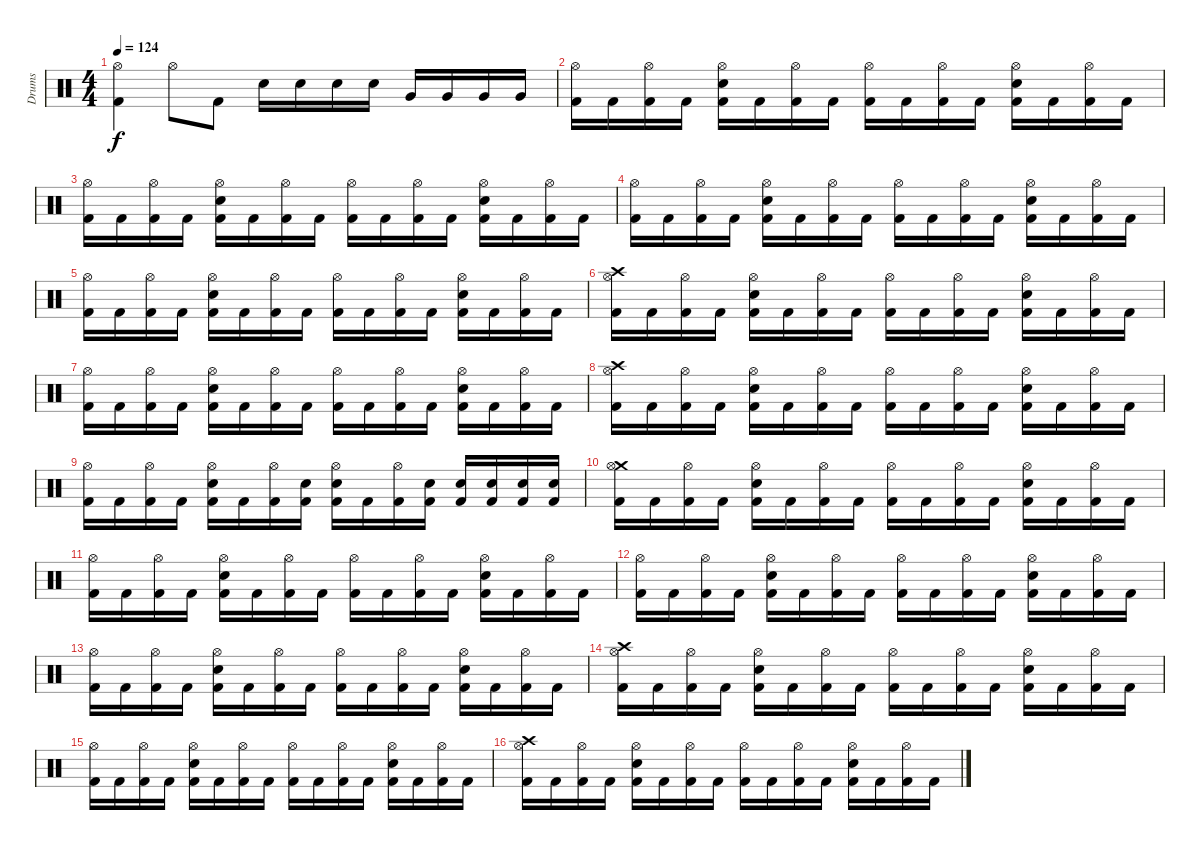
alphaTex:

\track ("Drums" "Drums") {instrument percussion}
\staff {score}
\articulation defaults
\ts (4 4)
\tempo 124
\clef neutral
\ks c
("Hi-Hat (open)" "Kick (hit) 2").4{dy f} "Hi-Hat (open)".8 "Kick (hit) 2".8 "Electric Snare (hit)".16 "Electric Snare (hit)".16 "Electric Snare (hit)".16 "Electric Snare (hit)".16 "Very Low Tom (hit)".16 "Very Low Tom (hit)".16 "Very Low Tom (hit)".16 "Very Low Tom (hit)".16 |
("Hi-Hat (open)" "Kick (hit) 2").16 "Kick (hit) 2".16 ("Hi-Hat (open)" "Kick (hit) 2").16 "Kick (hit) 2".16 ("Hi-Hat (open)" "Electric Snare (hit)" "Kick (hit) 2").16 "Kick (hit) 2".16 ("Hi-Hat (open)" "Kick (hit) 2").16 "Kick (hit) 2".16 ("Hi-Hat (open)" "Kick (hit) 2").16 "Kick (hit) 2".16 ("Hi-Hat (open)" "Kick (hit) 2").16 "Kick (hit) 2".16 ("Hi-Hat (open)" "Electric Snare (hit)" "Kick (hit) 2").16 "Kick (hit) 2".16 ("Hi-Hat (open)" "Kick (hit) 2").16 "Kick (hit) 2".16 |
("Hi-Hat (open)" "Kick (hit) 2").16 "Kick (hit) 2".16 ("Hi-Hat (open)" "Kick (hit) 2").16 "Kick (hit) 2".16 ("Hi-Hat (open)" "Electric Snare (hit)" "Kick (hit) 2").16 "Kick (hit) 2".16 ("Hi-Hat (open)" "Kick (hit) 2").16 "Kick (hit) 2".16 ("Hi-Hat (open)" "Kick (hit) 2").16 "Kick (hit) 2".16 ("Hi-Hat (open)" "Kick (hit) 2").16 "Kick (hit) 2".16 ("Hi-Hat (open)" "Electric Snare (hit)" "Kick (hit) 2").16 "Kick (hit) 2".16 ("Hi-Hat (open)" "Kick (hit) 2").16 "Kick (hit) 2".16 |
("Hi-Hat (open)" "Kick (hit) 2").16 "Kick (hit) 2".16 ("Hi-Hat (open)" "Kick (hit) 2").16 "Kick (hit) 2".16 ("Hi-Hat (open)" "Electric Snare (hit)" "Kick (hit) 2").16 "Kick (hit) 2".16 ("Hi-Hat (open)" "Kick (hit) 2").16 "Kick (hit) 2".16 ("Hi-Hat (open)" "Kick (hit) 2").16 "Kick (hit) 2".16 ("Hi-Hat (open)" "Kick (hit) 2").16 "Kick (hit) 2".16 ("Hi-Hat (open)" "Electric Snare (hit)" "Kick (hit) 2").16 "Kick (hit) 2".16 ("Hi-Hat (open)" "Kick (hit) 2").16 "Kick (hit) 2".16 |
("Hi-Hat (open)" "Kick (hit) 2").16 "Kick (hit) 2".16 ("Hi-Hat (open)" "Kick (hit) 2").16 "Kick (hit) 2".16 ("Hi-Hat (open)" "Electric Snare (hit)" "Kick (hit) 2").16 "Kick (hit) 2".16 ("Hi-Hat (open)" "Kick (hit) 2").16 "Kick (hit) 2".16 ("Hi-Hat (open)" "Kick (hit) 2").16 "Kick (hit) 2".16 ("Hi-Hat (open)" "Kick (hit) 2").16 "Kick (hit) 2".16 ("Hi-Hat (open)" "Electric Snare (hit)" "Kick (hit) 2").16 "Kick (hit) 2".16 ("Hi-Hat (open)" "Kick (hit) 2").16 "Kick (hit) 2".16 |
("Crash high (hit)" "Hi-Hat (open)" "Kick (hit) 2").16 "Kick (hit) 2".16 ("Hi-Hat (open)" "Kick (hit) 2").16 "Kick (hit) 2".16 ("Hi-Hat (open)" "Electric Snare (hit)" "Kick (hit) 2").16 "Kick (hit) 2".16 ("Hi-Hat (open)" "Kick (hit) 2").16 "Kick (hit) 2".16 ("Hi-Hat (open)" "Kick (hit) 2").16 "Kick (hit) 2".16 ("Hi-Hat (open)" "Kick (hit) 2").16 "Kick (hit) 2".16 ("Hi-Hat (open)" "Electric Snare (hit)" "Kick (hit) 2").16 "Kick (hit) 2".16 ("Hi-Hat (open)" "Kick (hit) 2").16 "Kick (hit) 2".16 |
("Hi-Hat (open)" "Kick (hit) 2").16 "Kick (hit) 2".16 ("Hi-Hat (open)" "Kick (hit) 2").16 "Kick (hit) 2".16 ("Hi-Hat (open)" "Electric Snare (hit)" "Kick (hit) 2").16 "Kick (hit) 2".16 ("Hi-Hat (open)" "Kick (hit) 2").16 "Kick (hit) 2".16 ("Hi-Hat (open)" "Kick (hit) 2").16 "Kick (hit) 2".16 ("Hi-Hat (open)" "Kick (hit) 2").16 "Kick (hit) 2".16 ("Hi-Hat (open)" "Electric Snare (hit)" "Kick (hit) 2").16 "Kick (hit) 2".16 ("Hi-Hat (open)" "Kick (hit) 2").16 "Kick (hit) 2".16 |
("Crash high (hit)" "Hi-Hat (open)" "Kick (hit) 2").16 "Kick (hit) 2".16 ("Hi-Hat (open)" "Kick (hit) 2").16 "Kick (hit) 2".16 ("Hi-Hat (open)" "Electric Snare (hit)" "Kick (hit) 2").16 "Kick (hit) 2".16 ("Hi-Hat (open)" "Kick (hit) 2").16 "Kick (hit) 2".16 ("Hi-Hat (open)" "Kick (hit) 2").16 "Kick (hit) 2".16 ("Hi-Hat (open)" "Kick (hit) 2").16 "Kick (hit) 2".16 ("Hi-Hat (open)" "Electric Snare (hit)" "Kick (hit) 2").16 "Kick (hit) 2".16 ("Hi-Hat (open)" "Kick (hit) 2").16 "Kick (hit) 2".16 |
("Hi-Hat (open)" "Kick (hit) 2").16 "Kick (hit) 2".16 ("Hi-Hat (open)" "Kick (hit) 2").16 "Kick (hit) 2".16 ("Hi-Hat (open)" "Electric Snare (hit)" "Kick (hit) 2").16 "Kick (hit) 2".16 ("Hi-Hat (open)" "Kick (hit) 2").16 ("Electric Snare (hit)" "Kick (hit) 2").16 ("Hi-Hat (open)" "Electric Snare (hit)" "Kick (hit) 2").16 "Kick (hit) 2".16 ("Hi-Hat (open)" "Kick (hit) 2").16 ("Electric Snare (hit)" "Kick (hit) 2").16 ("Electric Snare (hit)" "Kick (hit) 2").16 ("Electric Snare (hit)" "Kick (hit) 2").16 ("Electric Snare (hit)" "Kick (hit) 2").16 ("Electric Snare (hit)" "Kick (hit) 2").16 |
("Crash medium (hit)" "Hi-Hat (open)" "Kick (hit) 2").16 "Kick (hit) 2".16 ("Hi-Hat (open)" "Kick (hit) 2").16 "Kick (hit) 2".16 ("Hi-Hat (open)" "Electric Snare (hit)" "Kick (hit) 2").16 "Kick (hit) 2".16 ("Hi-Hat (open)" "Kick (hit) 2").16 "Kick (hit) 2".16 ("Hi-Hat (open)" "Kick (hit) 2").16 "Kick (hit) 2".16 ("Hi-Hat (open)" "Kick (hit) 2").16 "Kick (hit) 2".16 ("Hi-Hat (open)" "Electric Snare (hit)" "Kick (hit) 2").16 "Kick (hit) 2".16 ("Hi-Hat (open)" "Kick (hit) 2").16 "Kick (hit) 2".16 |
("Hi-Hat (open)" "Kick (hit) 2").16 "Kick (hit) 2".16 ("Hi-Hat (open)" "Kick (hit) 2").16 "Kick (hit) 2".16 ("Hi-Hat (open)" "Electric Snare (hit)" "Kick (hit) 2").16 "Kick (hit) 2".16 ("Hi-Hat (open)" "Kick (hit) 2").16 "Kick (hit) 2".16 ("Hi-Hat (open)" "Kick (hit) 2").16 "Kick (hit) 2".16 ("Hi-Hat (open)" "Kick (hit) 2").16 "Kick (hit) 2".16 ("Hi-Hat (open)" "Electric Snare (hit)" "Kick (hit) 2").16 "Kick (hit) 2".16 ("Hi-Hat (open)" "Kick (hit) 2").16 "Kick (hit) 2".16 |
("Hi-Hat (open)" "Kick (hit) 2").16 "Kick (hit) 2".16 ("Hi-Hat (open)" "Kick (hit) 2").16 "Kick (hit) 2".16 ("Hi-Hat (open)" "Electric Snare (hit)" "Kick (hit) 2").16 "Kick (hit) 2".16 ("Hi-Hat (open)" "Kick (hit) 2").16 "Kick (hit) 2".16 ("Hi-Hat (open)" "Kick (hit) 2").16 "Kick (hit) 2".16 ("Hi-Hat (open)" "Kick (hit) 2").16 "Kick (hit) 2".16 ("Hi-Hat (open)" "Electric Snare (hit)" "Kick (hit) 2").16 "Kick (hit) 2".16 ("Hi-Hat (open)" "Kick (hit) 2").16 "Kick (hit) 2".16 |
("Hi-Hat (open)" "Kick (hit) 2").16 "Kick (hit) 2".16 ("Hi-Hat (open)" "Kick (hit) 2").16 "Kick (hit) 2".16 ("Hi-Hat (open)" "Electric Snare (hit)" "Kick (hit) 2").16 "Kick (hit) 2".16 ("Hi-Hat (open)" "Kick (hit) 2").16 "Kick (hit) 2".16 ("Hi-Hat (open)" "Kick (hit) 2").16 "Kick (hit) 2".16 ("Hi-Hat (open)" "Kick (hit) 2").16 "Kick (hit) 2".16 ("Hi-Hat (open)" "Electric Snare (hit)" "Kick (hit) 2").16 "Kick (hit) 2".16 ("Hi-Hat (open)" "Kick (hit) 2").16 "Kick (hit) 2".16 |
("Crash high (hit)" "Hi-Hat (open)" "Kick (hit) 2").16 "Kick (hit) 2".16 ("Hi-Hat (open)" "Kick (hit) 2").16 "Kick (hit) 2".16 ("Hi-Hat (open)" "Electric Snare (hit)" "Kick (hit) 2").16 "Kick (hit) 2".16 ("Hi-Hat (open)" "Kick (hit) 2").16 "Kick (hit) 2".16 ("Hi-Hat (open)" "Kick (hit) 2").16 "Kick (hit) 2".16 ("Hi-Hat (open)" "Kick (hit) 2").16 "Kick (hit) 2".16 ("Hi-Hat (open)" "Electric Snare (hit)" "Kick (hit) 2").16 "Kick (hit) 2".16 ("Hi-Hat (open)" "Kick (hit) 2").16 "Kick (hit) 2".16 |
("Hi-Hat (open)" "Kick (hit) 2").16 "Kick (hit) 2".16 ("Hi-Hat (open)" "Kick (hit) 2").16 "Kick (hit) 2".16 ("Hi-Hat (open)" "Electric Snare (hit)" "Kick (hit) 2").16 "Kick (hit) 2".16 ("Hi-Hat (open)" "Kick (hit) 2").16 "Kick (hit) 2".16 ("Hi-Hat (open)" "Kick (hit) 2").16 "Kick (hit) 2".16 ("Hi-Hat (open)" "Kick (hit) 2").16 "Kick (hit) 2".16 ("Hi-Hat (open)" "Electric Snare (hit)" "Kick (hit) 2").16 "Kick (hit) 2".16 ("Hi-Hat (open)" "Kick (hit) 2").16 "Kick (hit) 2".16 |
("Crash high (hit)" "Hi-Hat (open)" "Kick (hit) 2").16 "Kick (hit) 2".16 ("Hi-Hat (open)" "Kick (hit) 2").16 "Kick (hit) 2".16 ("Hi-Hat (open)" "Electric Snare (hit)" "Kick (hit) 2").16 "Kick (hit) 2".16 ("Hi-Hat (open)" "Kick (hit) 2").16 "Kick (hit) 2".16 ("Hi-Hat (open)" "Kick (hit) 2").16 "Kick (hit) 2".16 ("Hi-Hat (open)" "Kick (hit) 2").16 "Kick (hit) 2".16 ("Hi-Hat (open)" "Electric Snare (hit)" "Kick (hit) 2").16 "Kick (hit) 2".16 ("Hi-Hat (open)" "Kick (hit) 2").16 "Kick (hit) 2".16
